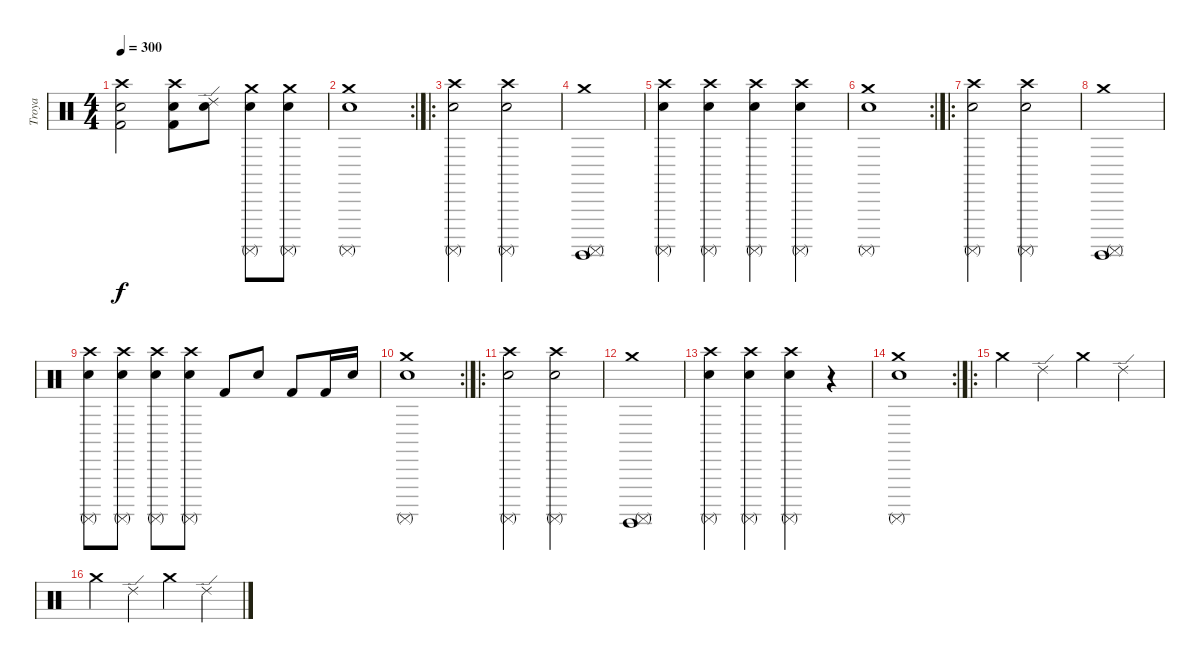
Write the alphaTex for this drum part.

\track ("Troya" "Troya") {instrument percussion}
\staff {score}
\articulation defaults
\ts (4 4)
\tempo 300
\clef neutral
\ks c
("Crash high (hit)" "Kick (hit) 2" "Snare (hit) 2").2{dy f} ("Crash high (hit)" "Kick (hit) 2" "Snare (hit) 2").8 ("Ride (edge) 2" "Snare (hit) 2").8 ("Crash medium (hit)" "Surdo (mute)" "Electric Snare (hit)").8 ("Crash medium (hit)" "Surdo (mute)" "Electric Snare (hit)").8 |
\rc 2
("Crash medium (hit)" "Surdo (mute)" "Electric Snare (hit)").1 |
\ro
("Crash high (hit)" "Surdo (mute)" "Electric Snare (hit)").2 ("Crash high (hit)" "Surdo (mute)" "Electric Snare (hit)").2 |
("Crash medium (hit)" "Surdo (hit)" "Surdo (mute)").1 |
("Crash high (hit)" "Surdo (mute)" "Electric Snare (hit)").4 ("Crash high (hit)" "Surdo (mute)" "Electric Snare (hit)").4 ("Crash high (hit)" "Surdo (mute)" "Electric Snare (hit)").4 ("Crash high (hit)" "Surdo (mute)" "Electric Snare (hit)").4 |
\rc 2
("Crash medium (hit)" "Electric Snare (hit)" "Surdo (mute)").1 |
\ro
("Crash high (hit)" "Surdo (mute)" "Electric Snare (hit)").2 ("Crash high (hit)" "Surdo (mute)" "Electric Snare (hit)").2 |
("Crash medium (hit)" "Surdo (hit)" "Surdo (mute)").1 |
("Crash high (hit)" "Surdo (mute)" "Electric Snare (hit)").8 ("Crash high (hit)" "Surdo (mute)" "Electric Snare (hit)").8 ("Crash high (hit)" "Surdo (mute)" "Electric Snare (hit)").8 ("Crash high (hit)" "Surdo (mute)" "Electric Snare (hit)").8 "Kick (hit) 2".8 "Snare (hit) 2".8 "Kick (hit) 2".8 "Kick (hit) 2".16 "Snare (hit) 2".16 |
\rc 2
("Crash medium (hit)" "Electric Snare (hit)" "Surdo (mute)").1 |
\ro
("Crash high (hit)" "Surdo (mute)" "Electric Snare (hit)").2 ("Crash high (hit)" "Surdo (mute)" "Electric Snare (hit)").2 |
("Crash medium (hit)" "Surdo (hit)" "Surdo (mute)").1 |
("Crash high (hit)" "Surdo (mute)" "Electric Snare (hit)").4 ("Crash high (hit)" "Surdo (mute)" "Electric Snare (hit)").4 ("Crash high (hit)" "Surdo (mute)" "Electric Snare (hit)").4 r.4 |
\rc 2
("Crash medium (hit)" "Surdo (mute)" "Electric Snare (hit)").1 |
\ro "Crash medium (hit)".4 "Ride (edge) 2".4 "Crash medium (hit)".4 "Ride (edge) 2".4
|
"Crash medium (hit)".4 "Ride (edge) 2".4 "Crash medium (hit)".4 "Ride (edge) 2".4
